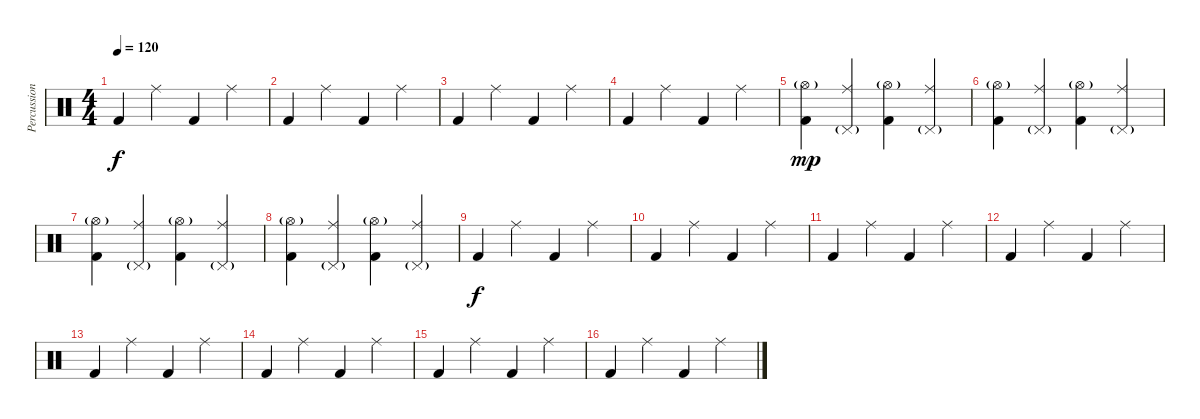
\track ("Percussions" "Percussion") {instrument percussion}
\staff {score}
\articulation defaults
\ts (4 4)
\tempo 120
\clef neutral
\ks c "Kick (hit) 2".4{dy f} "Ride (middle)".4 "Kick (hit) 2".4 "Ride (middle)".4
|
"Kick (hit) 2".4 "Ride (middle)".4 "Kick (hit) 2".4 "Ride (middle)".4 |
"Kick (hit) 2".4 "Ride (middle)".4 "Kick (hit) 2".4 "Ride (middle)".4 |
"Kick (hit) 2".4 "Ride (middle)".4 "Kick (hit) 2".4 "Ride (middle)".4 |
("Hi-Hat (open)"{g} "Kick (hit) 2").4{dy mp} ("Pedal Hi-Hat (hit)"{g} "Ride (middle)").4 ("Hi-Hat (open)"{g} "Kick (hit) 2").4 ("Pedal Hi-Hat (hit)"{g} "Ride (middle)").4 |
("Hi-Hat (open)"{g} "Kick (hit) 2").4 ("Pedal Hi-Hat (hit)"{g} "Ride (middle)").4 ("Hi-Hat (open)"{g} "Kick (hit) 2").4 ("Pedal Hi-Hat (hit)"{g} "Ride (middle)").4 |
("Hi-Hat (open)"{g} "Kick (hit) 2").4 ("Pedal Hi-Hat (hit)"{g} "Ride (middle)").4 ("Hi-Hat (open)"{g} "Kick (hit) 2").4 ("Pedal Hi-Hat (hit)"{g} "Ride (middle)").4 |
("Hi-Hat (open)"{g} "Kick (hit) 2").4 ("Pedal Hi-Hat (hit)"{g} "Ride (middle)").4 ("Hi-Hat (open)"{g} "Kick (hit) 2").4 ("Pedal Hi-Hat (hit)"{g} "Ride (middle)").4 |
"Kick (hit) 2".4{dy f} "Ride (middle)".4 "Kick (hit) 2".4 "Ride (middle)".4 |
"Kick (hit) 2".4 "Ride (middle)".4 "Kick (hit) 2".4 "Ride (middle)".4 |
"Kick (hit) 2".4 "Ride (middle)".4 "Kick (hit) 2".4 "Ride (middle)".4 |
"Kick (hit) 2".4 "Ride (middle)".4 "Kick (hit) 2".4 "Ride (middle)".4 |
"Kick (hit) 2".4 "Ride (middle)".4 "Kick (hit) 2".4 "Ride (middle)".4 |
"Kick (hit) 2".4 "Ride (middle)".4 "Kick (hit) 2".4 "Ride (middle)".4 |
"Kick (hit) 2".4 "Ride (middle)".4 "Kick (hit) 2".4 "Ride (middle)".4 |
"Kick (hit) 2".4 "Ride (middle)".4 "Kick (hit) 2".4 "Ride (middle)".4
